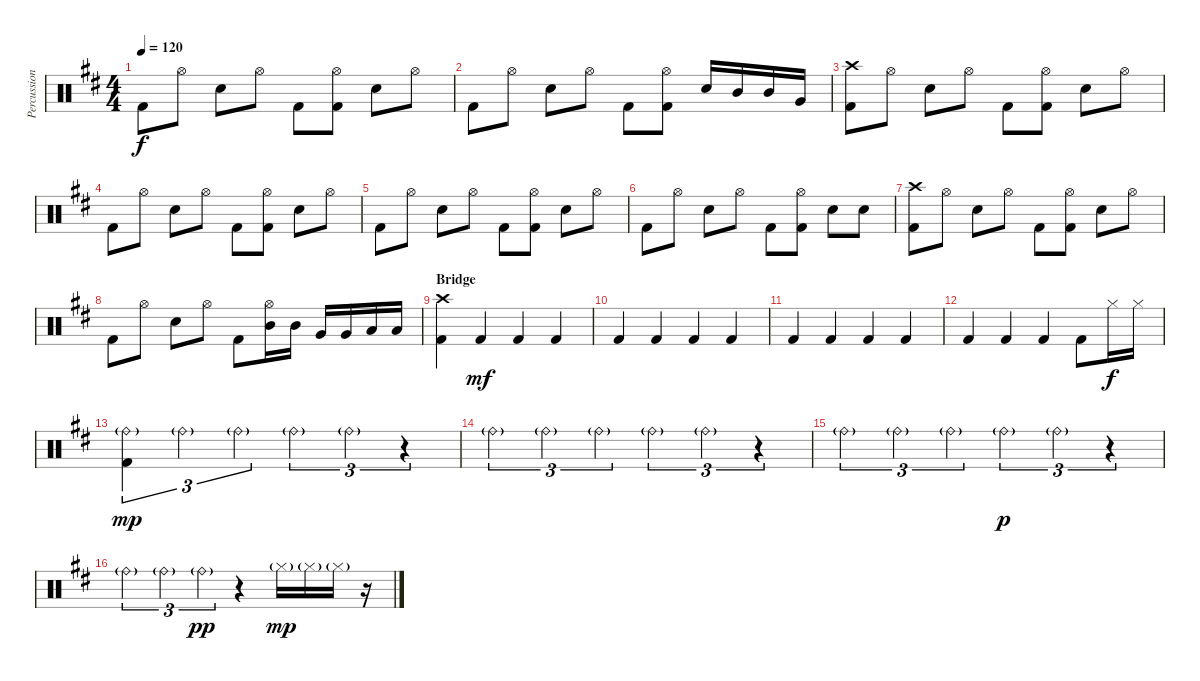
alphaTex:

\track ("Percussion" "Percussion") {instrument percussion}
\staff {score}
\articulation defaults
\ts (4 4)
\tempo 120
\clef neutral
\ks d "Kick (hit) 2".8{dy f} "Hi-Hat (open)".8 "Snare (hit) 2".8 "Hi-Hat (open)".8 "Kick (hit) 2".8
("Hi-Hat (open)" "Kick (hit) 2").8 "Snare (hit) 2".8 "Hi-Hat (open)".8 |
"Kick (hit) 2".8 "Hi-Hat (open)".8 "Snare (hit) 2".8 "Hi-Hat (open)".8 "Kick (hit) 2".8 ("Hi-Hat (open)" "Kick (hit) 2").8 "Snare (hit) 2".16 "Mid Tom (hit)".16 "Mid Tom (hit)".16 "Very Low Tom (hit)".16 |
("Crash high (hit)" "Kick (hit) 2").8 "Hi-Hat (open)".8 "Snare (hit) 2".8 "Hi-Hat (open)".8 "Kick (hit) 2".8 ("Hi-Hat (open)" "Kick (hit) 2").8 "Snare (hit) 2".8 "Hi-Hat (open)".8 |
"Kick (hit) 2".8 "Hi-Hat (open)".8 "Snare (hit) 2".8 "Hi-Hat (open)".8 "Kick (hit) 2".8 ("Hi-Hat (open)" "Kick (hit) 2").8 "Snare (hit) 2".8 "Hi-Hat (open)".8 |
"Kick (hit) 2".8 "Hi-Hat (open)".8 "Snare (hit) 2".8 "Hi-Hat (open)".8 "Kick (hit) 2".8 ("Hi-Hat (open)" "Kick (hit) 2").8 "Snare (hit) 2".8 "Hi-Hat (open)".8 |
"Kick (hit) 2".8 "Hi-Hat (open)".8 "Snare (hit) 2".8 "Hi-Hat (open)".8 "Kick (hit) 2".8 ("Hi-Hat (open)" "Kick (hit) 2").8 "Snare (hit) 2".8 "Snare (hit) 2".8 |
("Crash high (hit)" "Kick (hit) 2").8 "Hi-Hat (open)".8 "Snare (hit) 2".8 "Hi-Hat (open)".8 "Kick (hit) 2".8 ("Hi-Hat (open)" "Kick (hit) 2").8 "Snare (hit) 2".8 "Hi-Hat (open)".8 |
"Kick (hit) 2".8 "Hi-Hat (open)".8 "Snare (hit) 2".8 "Hi-Hat (open)".8 "Kick (hit) 2".8 ("Hi-Hat (open)" "Mid Tom (hit)").16 "Mid Tom (hit)".16 "Very Low Tom (hit)".16 "Very Low Tom (hit)".16 "Low Floor Tom (hit)".16 "Low Floor Tom (hit)".16 |
\section ("" "Bridge")
("Crash high (hit)" "Kick (hit) 2").4 "Kick (hit) 2".4{dy mf} "Kick (hit) 2".4 "Kick (hit) 2".4 |
"Kick (hit) 2".4 "Kick (hit) 2".4 "Kick (hit) 2".4 "Kick (hit) 2".4 |
"Kick (hit) 2".4 "Kick (hit) 2".4 "Kick (hit) 2".4 "Kick (hit) 2".4 |
"Kick (hit) 2".4 "Kick (hit) 2".4 "Kick (hit) 2".4 "Kick (hit) 2".8 "Hi-Hat (closed)".16{dy f} "Hi-Hat (closed)".16 |
("Ride (bell)"{g} "Kick (hit) 2").4{tu (3 2) dy mp} "Ride (bell)"{g}.4{tu (3 2)} "Ride (bell)"{g}.4{tu (3 2)} "Ride (bell)"{g}.4{tu (3 2)} "Ride (bell)"{g}.4{tu (3 2)} r.4{tu (3 2)} |
"Ride (bell)"{g}.4{tu (3 2)} "Ride (bell)"{g}.4{tu (3 2)} "Ride (bell)"{g}.4{tu (3 2)} "Ride (bell)"{g}.4{tu (3 2)} "Ride (bell)"{g}.4{tu (3 2)} r.4{tu (3 2)} |
"Ride (bell)"{g}.4{tu (3 2)} "Ride (bell)"{g}.4{tu (3 2)} "Ride (bell)"{g}.4{tu (3 2)} "Ride (bell)"{g}.4{tu (3 2) dy p} "Ride (bell)"{g}.4{tu (3 2)} r.4{tu (3 2)} |
"Ride (bell)"{g}.4{tu (3 2)} "Ride (bell)"{g}.4{tu (3 2)} "Ride (bell)"{g}.4{tu (3 2) dy pp} r.4 "Hi-Hat (closed)"{g}.16{dy mp} "Hi-Hat (closed)"{g}.16 "Hi-Hat (closed)"{g}.16 r.16
